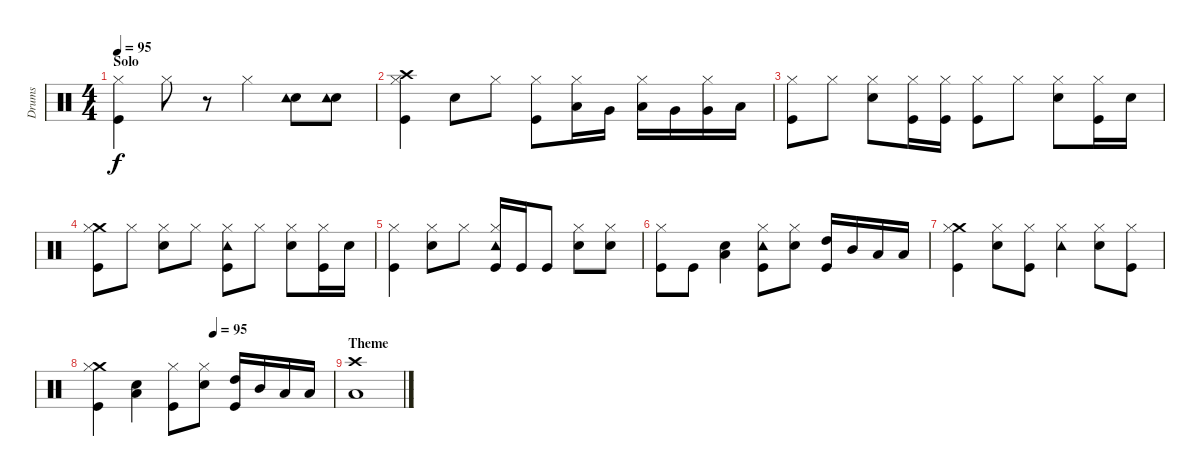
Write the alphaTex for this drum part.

\track ("Drums" "Drums") {instrument percussion}
\staff {score}
\articulation defaults
\ts (4 4)
\section ("" "Solo")
\tempo 95
\clef neutral
\ks c
("Kick (hit)" "Hi-Hat (closed)").4{dy f} "Hi-Hat (closed)".8 r.8 "Hi-Hat (closed)".4 ("Snare (hit) 2" "Tambourine (hit)").8 ("Snare (hit) 2" "Tambourine (hit)").8 |
("Crash high (hit)" "Kick (hit)" "Hi-Hat (closed)").4 "Snare (hit) 2".8 "Hi-Hat (closed)".8 ("Kick (hit)" "Hi-Hat (closed)").8 ("Low Tom (hit)" "Hi-Hat (closed)").16 "Very Low Tom (hit)".16 ("Low Tom (hit)" "Hi-Hat (closed)").16 "Very Low Tom (hit)".16 ("Very Low Tom (hit)" "Hi-Hat (closed)").16 "Low Floor Tom (hit)".16 |
("Kick (hit)" "Hi-Hat (closed)").8 "Hi-Hat (closed)".8 ("Snare (hit) 2" "Hi-Hat (closed)").8 ("Kick (hit)" "Hi-Hat (closed)").16 ("Kick (hit)" "Hi-Hat (closed)").16 ("Kick (hit)" "Hi-Hat (closed)").8 "Hi-Hat (closed)".8 ("Snare (hit) 2" "Hi-Hat (closed)").8 ("Kick (hit)" "Hi-Hat (closed)").16 "Snare (hit) 2".16 |
("Crash medium (hit)" "Kick (hit)" "Hi-Hat (closed)").8 "Hi-Hat (closed)".8 ("Snare (hit) 2" "Hi-Hat (closed)").8 "Hi-Hat (closed)".8 ("Tambourine (hit)" "Kick (hit)" "Hi-Hat (closed)").8 "Hi-Hat (closed)".8 ("Snare (hit) 2" "Hi-Hat (closed)").8 ("Kick (hit)" "Hi-Hat (closed)").16 "Snare (hit) 2".16 |
("Kick (hit)" "Hi-Hat (closed)").4 ("Snare (hit) 2" "Hi-Hat (closed)").8 "Hi-Hat (closed)".8 ("Tambourine (hit)" "Kick (hit)" "Hi-Hat (closed)").16 "Kick (hit)".16 "Kick (hit)".8 ("Snare (hit) 2" "Hi-Hat (closed)").8 ("Snare (hit) 2" "Hi-Hat (closed)").8 |
("Kick (hit)" "Hi-Hat (closed)").8 "Kick (hit)".8 ("Snare (hit) 2" "Low Tom (hit)").4 ("Tambourine (hit)" "Kick (hit)" "Hi-Hat (closed)").8 ("Snare (hit) 2" "Hi-Hat (closed)").8 ("Kick (hit)" "High Tom (hit)").16 "Mid Tom (hit)".16 "Low Tom (hit)".16 "Low Floor Tom (hit)".16 |
("Crash medium (hit)" "Kick (hit)" "Hi-Hat (closed)").4 ("Snare (hit) 2" "Hi-Hat (closed)").8 ("Kick (hit)" "Hi-Hat (closed)").8 ("Tambourine (hit)" "Hi-Hat (closed)").4 ("Snare (hit) 2" "Hi-Hat (closed)").8 ("Kick (hit)" "Hi-Hat (closed)").8 |
\tempo (95 0.5)
("Crash medium (hit)" "Kick (hit)" "Hi-Hat (closed)").4 ("Snare (hit) 2" "Low Tom (hit)").4 ("Kick (hit)" "Hi-Hat (closed)").8 ("Snare (hit) 2" "Hi-Hat (closed)").8 ("Kick (hit)" "High Tom (hit)").16 "Mid Tom (hit)".16 "Low Tom (hit)".16 "Low Floor Tom (hit)".16 |
\section ("" "Theme")
("Crash high (hit)" "Low Tom (hit)").1
